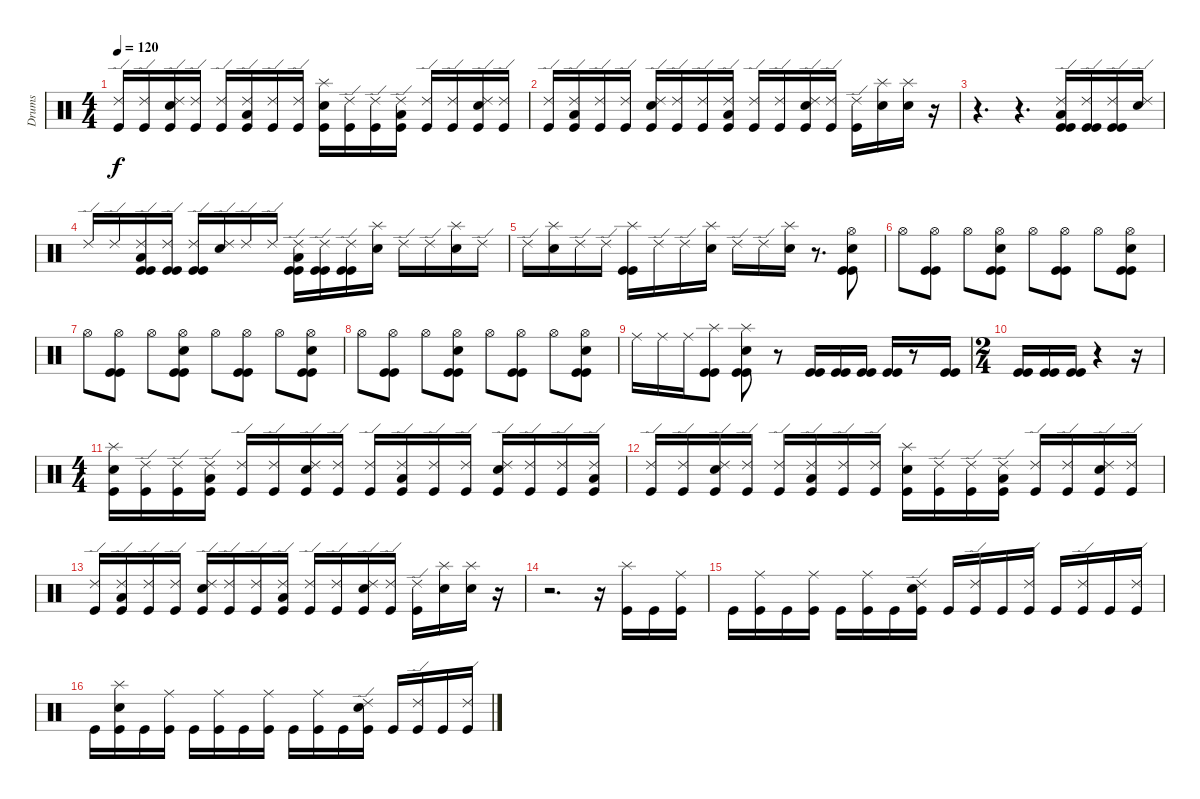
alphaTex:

\track ("Drums" "Drums") {instrument percussion}
\staff {score}
\articulation defaults
\ts (4 4)
\tempo 120
\clef neutral
\ks c
("Ride (edge) 2" "Kick (hit)").16{dy f} ("Ride (edge) 2" "Kick (hit)").16 ("Ride (edge) 2" "Electric Snare (hit)" "Kick (hit)").16 ("Ride (edge) 2" "Kick (hit)").16 ("Ride (edge) 2" "Kick (hit)").16 ("Ride (edge) 2" "Low Floor Tom (hit)" "Kick (hit)").16 ("Ride (edge) 2" "Kick (hit)").16 ("Ride (edge) 2" "Kick (hit)").16 ("Splash (hit)" "Electric Snare (hit)" "Kick (hit)").16 ("Ride (edge) 2" "Kick (hit)").16 ("Ride (edge) 2" "Kick (hit)").16 ("Ride (edge) 2" "Low Floor Tom (hit)" "Kick (hit)").16 ("Ride (edge) 2" "Kick (hit)").16 ("Ride (edge) 2" "Kick (hit)").16 ("Ride (edge) 2" "Electric Snare (hit)" "Kick (hit)").16 ("Ride (edge) 2" "Kick (hit)").16 |
("Ride (edge) 2" "Kick (hit)").16 ("Ride (edge) 2" "Low Floor Tom (hit)" "Kick (hit)").16 ("Ride (edge) 2" "Kick (hit)").16 ("Ride (edge) 2" "Kick (hit)").16 ("Ride (edge) 2" "Electric Snare (hit)" "Kick (hit)").16 ("Ride (edge) 2" "Kick (hit)").16 ("Ride (edge) 2" "Kick (hit)").16 ("Ride (edge) 2" "Low Floor Tom (hit)" "Kick (hit)").16 ("Ride (edge) 2" "Kick (hit)").16 ("Ride (edge) 2" "Kick (hit)").16 ("Ride (edge) 2" "Electric Snare (hit)" "Kick (hit)").16 ("Ride (edge) 2" "Kick (hit)").16 ("Ride (edge) 2" "Kick (hit)").16 ("Splash (hit)" "Electric Snare (hit)").16 ("Splash (hit)" "Electric Snare (hit)").16 r.16 |
r.4{d} r.4{d} ("Ride (edge) 2" "Low Floor Tom (hit)" "Kick (hit)" "Kick (hit)").16 ("Ride (edge) 2" "Kick (hit)" "Kick (hit)").16 ("Ride (edge) 2" "Kick (hit)" "Kick (hit)").16 ("Ride (edge) 2" "Electric Snare (hit)").16 |
"Ride (edge) 2".16 "Ride (edge) 2".16 ("Ride (edge) 2" "Low Floor Tom (hit)" "Kick (hit)" "Kick (hit)").16 ("Ride (edge) 2" "Kick (hit)" "Kick (hit)").16 ("Ride (edge) 2" "Kick (hit)" "Kick (hit)").16 ("Ride (edge) 2" "Electric Snare (hit)").16 "Ride (edge) 2".16 "Ride (edge) 2".16 ("Ride (edge) 2" "Low Floor Tom (hit)" "Kick (hit)" "Kick (hit)").16 ("Ride (edge) 2" "Kick (hit)" "Kick (hit)").16 ("Ride (edge) 2" "Kick (hit)" "Kick (hit)").16 ("Splash (hit)" "Electric Snare (hit)").16 "Ride (edge) 2".16 "Ride (edge) 2".16 ("Splash (hit)" "Electric Snare (hit)").16 "Ride (edge) 2".16 |
"Ride (edge) 2".16 ("Splash (hit)" "Electric Snare (hit)").16 "Ride (edge) 2".16 "Ride (edge) 2".16 ("Splash (hit)" "Kick (hit)" "Kick (hit)").16 "Ride (edge) 2".16 "Ride (edge) 2".16 ("Splash (hit)" "Electric Snare (hit)").16 "Ride (edge) 2".16 "Ride (edge) 2".16 ("Splash (hit)" "Electric Snare (hit)").16 r.8{d} ("Hi-Hat (open)" "Electric Snare (hit)" "Kick (hit)" "Kick (hit)").8 |
"Hi-Hat (open)".8 ("Hi-Hat (open)" "Kick (hit)" "Kick (hit)").8 "Hi-Hat (open)".8 ("Hi-Hat (open)" "Electric Snare (hit)" "Kick (hit)" "Kick (hit)").8 "Hi-Hat (open)".8 ("Hi-Hat (open)" "Kick (hit)" "Kick (hit)").8 "Hi-Hat (open)".8 ("Hi-Hat (open)" "Electric Snare (hit)" "Kick (hit)" "Kick (hit)").8 |
"Hi-Hat (open)".8 ("Hi-Hat (open)" "Kick (hit)" "Kick (hit)").8 "Hi-Hat (open)".8 ("Hi-Hat (open)" "Electric Snare (hit)" "Kick (hit)" "Kick (hit)").8 "Hi-Hat (open)".8 ("Hi-Hat (open)" "Kick (hit)" "Kick (hit)").8 "Hi-Hat (open)".8 ("Hi-Hat (open)" "Electric Snare (hit)" "Kick (hit)" "Kick (hit)").8 |
"Hi-Hat (open)".8 ("Hi-Hat (open)" "Kick (hit)" "Kick (hit)").8 "Hi-Hat (open)".8 ("Hi-Hat (open)" "Electric Snare (hit)" "Kick (hit)" "Kick (hit)").8 "Hi-Hat (open)".8 ("Hi-Hat (open)" "Kick (hit)" "Kick (hit)").8 "Hi-Hat (open)".8 ("Hi-Hat (open)" "Electric Snare (hit)" "Kick (hit)" "Kick (hit)").8 |
"Ride (middle)".16 "Ride (middle)".16 "Ride (middle)".16 ("Splash (hit)" "Kick (hit)" "Kick (hit)").8 ("Splash (hit)" "Electric Snare (hit)" "Kick (hit)" "Kick (hit)").8 r.8 ("Kick (hit)" "Kick (hit)").16 ("Kick (hit)" "Kick (hit)").16 ("Kick (hit)" "Kick (hit)").16 ("Kick (hit)" "Kick (hit)").16 r.8 ("Kick (hit)" "Kick (hit)").16 |
\ts (2 4)
("Kick (hit)" "Kick (hit)").16 ("Kick (hit)" "Kick (hit)").16 ("Kick (hit)" "Kick (hit)").16 r.4 r.16 |
\ts (4 4)
("Splash (hit)" "Electric Snare (hit)" "Kick (hit)").16 ("Ride (edge) 2" "Kick (hit)").16 ("Ride (edge) 2" "Kick (hit)").16 ("Ride (edge) 2" "Low Floor Tom (hit)" "Kick (hit)").16 ("Ride (edge) 2" "Kick (hit)").16 ("Ride (edge) 2" "Kick (hit)").16 ("Ride (edge) 2" "Electric Snare (hit)" "Kick (hit)").16 ("Ride (edge) 2" "Kick (hit)").16 ("Ride (edge) 2" "Kick (hit)").16 ("Ride (edge) 2" "Low Floor Tom (hit)" "Kick (hit)").16 ("Ride (edge) 2" "Kick (hit)").16 ("Ride (edge) 2" "Kick (hit)").16 ("Ride (edge) 2" "Electric Snare (hit)" "Kick (hit)").16 ("Ride (edge) 2" "Kick (hit)").16 ("Ride (edge) 2" "Kick (hit)").16 ("Ride (edge) 2" "Low Floor Tom (hit)" "Kick (hit)").16 |
("Ride (edge) 2" "Kick (hit)").16 ("Ride (edge) 2" "Kick (hit)").16 ("Ride (edge) 2" "Electric Snare (hit)" "Kick (hit)").16 ("Ride (edge) 2" "Kick (hit)").16 ("Ride (edge) 2" "Kick (hit)").16 ("Ride (edge) 2" "Low Floor Tom (hit)" "Kick (hit)").16 ("Ride (edge) 2" "Kick (hit)").16 ("Ride (edge) 2" "Kick (hit)").16 ("Splash (hit)" "Electric Snare (hit)" "Kick (hit)").16 ("Ride (edge) 2" "Kick (hit)").16 ("Ride (edge) 2" "Kick (hit)").16 ("Ride (edge) 2" "Low Floor Tom (hit)" "Kick (hit)").16 ("Ride (edge) 2" "Kick (hit)").16 ("Ride (edge) 2" "Kick (hit)").16 ("Ride (edge) 2" "Electric Snare (hit)" "Kick (hit)").16 ("Ride (edge) 2" "Kick (hit)").16 |
("Ride (edge) 2" "Kick (hit)").16 ("Ride (edge) 2" "Low Floor Tom (hit)" "Kick (hit)").16 ("Ride (edge) 2" "Kick (hit)").16 ("Ride (edge) 2" "Kick (hit)").16 ("Ride (edge) 2" "Electric Snare (hit)" "Kick (hit)").16 ("Ride (edge) 2" "Kick (hit)").16 ("Ride (edge) 2" "Kick (hit)").16 ("Ride (edge) 2" "Low Floor Tom (hit)" "Kick (hit)").16 ("Ride (edge) 2" "Kick (hit)").16 ("Ride (edge) 2" "Kick (hit)").16 ("Ride (edge) 2" "Electric Snare (hit)" "Kick (hit)").16 ("Ride (edge) 2" "Kick (hit)").16 ("Ride (edge) 2" "Kick (hit)").16 ("Splash (hit)" "Electric Snare (hit)").16 ("Splash (hit)" "Electric Snare (hit)").16 r.16 |
r.2{d} r.16 ("Splash (hit)" "Kick (hit)").16 "Kick (hit)".16 ("Ride (middle)" "Kick (hit)").16 |
"Kick (hit)".16 ("Ride (middle)" "Kick (hit)").16 "Kick (hit)".16 ("Ride (middle)" "Kick (hit)").16 "Kick (hit)".16 ("Ride (middle)" "Kick (hit)").16 "Kick (hit)".16 ("Ride (edge) 2" "Electric Snare (hit)" "Kick (hit)").16 "Kick (hit)".16 ("Ride (edge) 2" "Kick (hit)").16 "Kick (hit)".16 ("Ride (edge) 2" "Kick (hit)").16 "Kick (hit)".16 ("Ride (edge) 2" "Kick (hit)").16 "Kick (hit)".16 ("Ride (edge) 2" "Kick (hit)").16 |
"Kick (hit)".16 ("Splash (hit)" "Electric Snare (hit)" "Kick (hit)").16 "Kick (hit)".16 ("Ride (middle)" "Kick (hit)").16 "Kick (hit)".16 ("Ride (middle)" "Kick (hit)").16 "Kick (hit)".16 ("Ride (middle)" "Kick (hit)").16 "Kick (hit)".16 ("Ride (middle)" "Kick (hit)").16 "Kick (hit)".16 ("Ride (edge) 2" "Electric Snare (hit)" "Kick (hit)").16 "Kick (hit)".16 ("Ride (edge) 2" "Kick (hit)").16 "Kick (hit)".16 ("Ride (edge) 2" "Kick (hit)").16
